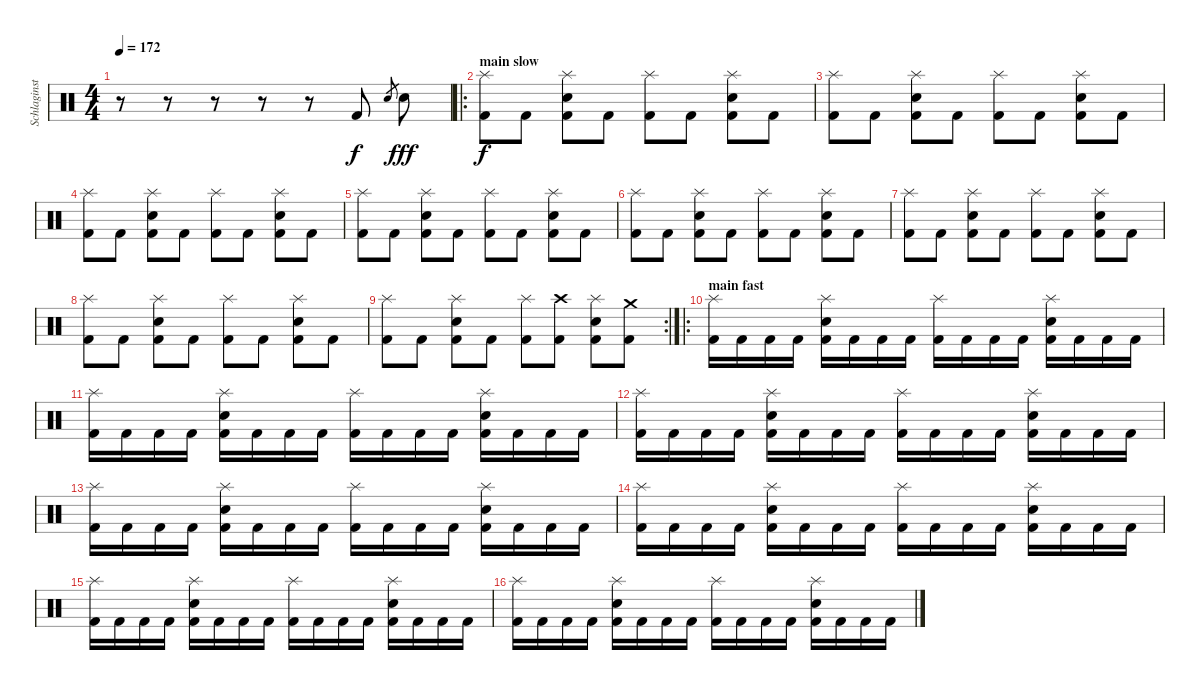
\track ("Schlaginstrumente - Auswahl" "Schlaginst") {instrument percussion}
\staff {score}
\articulation defaults
\ts (4 4)
\tempo 172
\clef neutral
\ks c
r.8{dy f} r.8 r.8 r.8 r.8 "Kick (hit) 2".8 "Electric Snare (hit)".8{gr} "Electric Snare (hit)".8{dy fff} |
\ro
\section ("" "main slow")
("Splash (hit)" "Kick (hit) 2").8{dy f} "Kick (hit) 2".8 ("Electric Snare (hit)" "Splash (hit)" "Kick (hit) 2").8 "Kick (hit) 2".8 ("Splash (hit)" "Kick (hit) 2").8 "Kick (hit) 2".8 ("Electric Snare (hit)" "Splash (hit)" "Kick (hit) 2").8 "Kick (hit) 2".8 |
("Splash (hit)" "Kick (hit) 2").8 "Kick (hit) 2".8 ("Electric Snare (hit)" "Splash (hit)" "Kick (hit) 2").8 "Kick (hit) 2".8 ("Splash (hit)" "Kick (hit) 2").8 "Kick (hit) 2".8 ("Electric Snare (hit)" "Splash (hit)" "Kick (hit) 2").8 "Kick (hit) 2".8 |
("Splash (hit)" "Kick (hit) 2").8 "Kick (hit) 2".8 ("Electric Snare (hit)" "Splash (hit)" "Kick (hit) 2").8 "Kick (hit) 2".8 ("Splash (hit)" "Kick (hit) 2").8 "Kick (hit) 2".8 ("Electric Snare (hit)" "Splash (hit)" "Kick (hit) 2").8 "Kick (hit) 2".8 |
("Splash (hit)" "Kick (hit) 2").8 "Kick (hit) 2".8 ("Electric Snare (hit)" "Splash (hit)" "Kick (hit) 2").8 "Kick (hit) 2".8 ("Splash (hit)" "Kick (hit) 2").8 "Kick (hit) 2".8 ("Electric Snare (hit)" "Splash (hit)" "Kick (hit) 2").8 "Kick (hit) 2".8 |
("Splash (hit)" "Kick (hit) 2").8 "Kick (hit) 2".8 ("Electric Snare (hit)" "Splash (hit)" "Kick (hit) 2").8 "Kick (hit) 2".8 ("Splash (hit)" "Kick (hit) 2").8 "Kick (hit) 2".8 ("Electric Snare (hit)" "Splash (hit)" "Kick (hit) 2").8 "Kick (hit) 2".8 |
("Splash (hit)" "Kick (hit) 2").8 "Kick (hit) 2".8 ("Electric Snare (hit)" "Splash (hit)" "Kick (hit) 2").8 "Kick (hit) 2".8 ("Splash (hit)" "Kick (hit) 2").8 "Kick (hit) 2".8 ("Electric Snare (hit)" "Splash (hit)" "Kick (hit) 2").8 "Kick (hit) 2".8 |
("Splash (hit)" "Kick (hit) 2").8 "Kick (hit) 2".8 ("Electric Snare (hit)" "Splash (hit)" "Kick (hit) 2").8 "Kick (hit) 2".8 ("Splash (hit)" "Kick (hit) 2").8 "Kick (hit) 2".8 ("Electric Snare (hit)" "Splash (hit)" "Kick (hit) 2").8 "Kick (hit) 2".8 |
\rc 2
("Splash (hit)" "Kick (hit) 2").8 "Kick (hit) 2".8 ("Electric Snare (hit)" "Splash (hit)" "Kick (hit) 2").8 "Kick (hit) 2".8 ("Splash (hit)" "Kick (hit) 2").8 ("Crash high (hit)" "Kick (hit) 2").8 ("Electric Snare (hit)" "Splash (hit)" "Kick (hit) 2").8 ("Crash medium (hit)" "Kick (hit) 2").8 |
\ro
\section ("" "main fast")
("Splash (hit)" "Kick (hit) 2").16 "Kick (hit) 2".16 "Kick (hit) 2".16 "Kick (hit) 2".16 ("Electric Snare (hit)" "Splash (hit)" "Kick (hit) 2").16 "Kick (hit) 2".16 "Kick (hit) 2".16 "Kick (hit) 2".16 ("Splash (hit)" "Kick (hit) 2").16 "Kick (hit) 2".16 "Kick (hit) 2".16 "Kick (hit) 2".16 ("Electric Snare (hit)" "Splash (hit)" "Kick (hit) 2").16 "Kick (hit) 2".16 "Kick (hit) 2".16 "Kick (hit) 2".16 |
("Splash (hit)" "Kick (hit) 2").16 "Kick (hit) 2".16 "Kick (hit) 2".16 "Kick (hit) 2".16 ("Electric Snare (hit)" "Splash (hit)" "Kick (hit) 2").16 "Kick (hit) 2".16 "Kick (hit) 2".16 "Kick (hit) 2".16 ("Splash (hit)" "Kick (hit) 2").16 "Kick (hit) 2".16 "Kick (hit) 2".16 "Kick (hit) 2".16 ("Electric Snare (hit)" "Splash (hit)" "Kick (hit) 2").16 "Kick (hit) 2".16 "Kick (hit) 2".16 "Kick (hit) 2".16 |
("Splash (hit)" "Kick (hit) 2").16 "Kick (hit) 2".16 "Kick (hit) 2".16 "Kick (hit) 2".16 ("Electric Snare (hit)" "Splash (hit)" "Kick (hit) 2").16 "Kick (hit) 2".16 "Kick (hit) 2".16 "Kick (hit) 2".16 ("Splash (hit)" "Kick (hit) 2").16 "Kick (hit) 2".16 "Kick (hit) 2".16 "Kick (hit) 2".16 ("Electric Snare (hit)" "Splash (hit)" "Kick (hit) 2").16 "Kick (hit) 2".16 "Kick (hit) 2".16 "Kick (hit) 2".16 |
("Splash (hit)" "Kick (hit) 2").16 "Kick (hit) 2".16 "Kick (hit) 2".16 "Kick (hit) 2".16 ("Electric Snare (hit)" "Splash (hit)" "Kick (hit) 2").16 "Kick (hit) 2".16 "Kick (hit) 2".16 "Kick (hit) 2".16 ("Splash (hit)" "Kick (hit) 2").16 "Kick (hit) 2".16 "Kick (hit) 2".16 "Kick (hit) 2".16 ("Electric Snare (hit)" "Splash (hit)" "Kick (hit) 2").16 "Kick (hit) 2".16 "Kick (hit) 2".16 "Kick (hit) 2".16 |
("Splash (hit)" "Kick (hit) 2").16 "Kick (hit) 2".16 "Kick (hit) 2".16 "Kick (hit) 2".16 ("Electric Snare (hit)" "Splash (hit)" "Kick (hit) 2").16 "Kick (hit) 2".16 "Kick (hit) 2".16 "Kick (hit) 2".16 ("Splash (hit)" "Kick (hit) 2").16 "Kick (hit) 2".16 "Kick (hit) 2".16 "Kick (hit) 2".16 ("Electric Snare (hit)" "Splash (hit)" "Kick (hit) 2").16 "Kick (hit) 2".16 "Kick (hit) 2".16 "Kick (hit) 2".16 |
("Splash (hit)" "Kick (hit) 2").16 "Kick (hit) 2".16 "Kick (hit) 2".16 "Kick (hit) 2".16 ("Electric Snare (hit)" "Splash (hit)" "Kick (hit) 2").16 "Kick (hit) 2".16 "Kick (hit) 2".16 "Kick (hit) 2".16 ("Splash (hit)" "Kick (hit) 2").16 "Kick (hit) 2".16 "Kick (hit) 2".16 "Kick (hit) 2".16 ("Electric Snare (hit)" "Splash (hit)" "Kick (hit) 2").16 "Kick (hit) 2".16 "Kick (hit) 2".16 "Kick (hit) 2".16 |
("Splash (hit)" "Kick (hit) 2").16 "Kick (hit) 2".16 "Kick (hit) 2".16 "Kick (hit) 2".16 ("Electric Snare (hit)" "Splash (hit)" "Kick (hit) 2").16 "Kick (hit) 2".16 "Kick (hit) 2".16 "Kick (hit) 2".16 ("Splash (hit)" "Kick (hit) 2").16 "Kick (hit) 2".16 "Kick (hit) 2".16 "Kick (hit) 2".16 ("Electric Snare (hit)" "Splash (hit)" "Kick (hit) 2").16 "Kick (hit) 2".16 "Kick (hit) 2".16 "Kick (hit) 2".16
